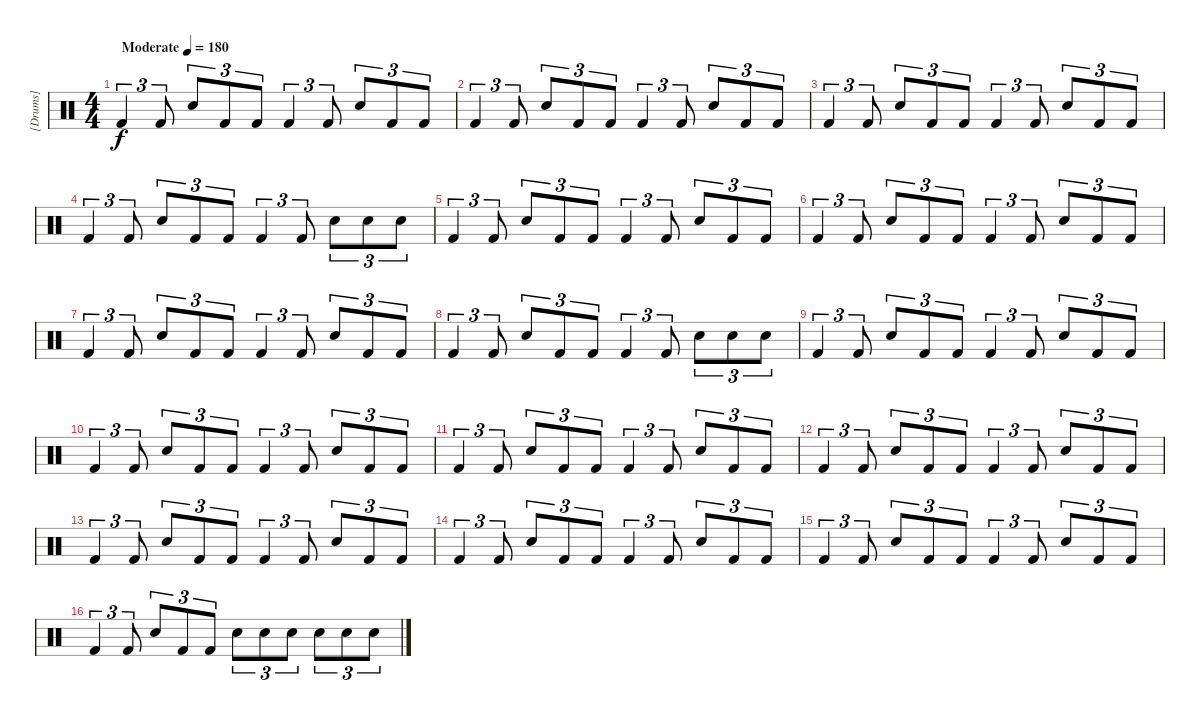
\track ("[Drums]" "[Drums]") {instrument percussion}
\staff {score}
\articulation defaults
\ts (4 4)
\tempo (180 "Moderate")
\clef neutral
\ks c "Kick (hit) 2".4{tu (3 2) dy f} "Kick (hit) 2".8{tu (3 2)} "Snare (hit) 2".8{tu (3 2)} "Kick (hit) 2".8{tu (3 2)} "Kick (hit) 2".8{tu (3 2)} "Kick (hit) 2".4{tu (3 2)} "Kick (hit) 2".8{tu (3 2)} "Snare (hit) 2".8{tu (3 2)} "Kick (hit) 2".8{tu (3 2)} "Kick (hit) 2".8{tu (3 2)}
|
"Kick (hit) 2".4{tu (3 2)} "Kick (hit) 2".8{tu (3 2)} "Snare (hit) 2".8{tu (3 2)} "Kick (hit) 2".8{tu (3 2)} "Kick (hit) 2".8{tu (3 2)} "Kick (hit) 2".4{tu (3 2)} "Kick (hit) 2".8{tu (3 2)} "Snare (hit) 2".8{tu (3 2)} "Kick (hit) 2".8{tu (3 2)} "Kick (hit) 2".8{tu (3 2)} |
"Kick (hit) 2".4{tu (3 2)} "Kick (hit) 2".8{tu (3 2)} "Snare (hit) 2".8{tu (3 2)} "Kick (hit) 2".8{tu (3 2)} "Kick (hit) 2".8{tu (3 2)} "Kick (hit) 2".4{tu (3 2)} "Kick (hit) 2".8{tu (3 2)} "Snare (hit) 2".8{tu (3 2)} "Kick (hit) 2".8{tu (3 2)} "Kick (hit) 2".8{tu (3 2)} |
"Kick (hit) 2".4{tu (3 2)} "Kick (hit) 2".8{tu (3 2)} "Snare (hit) 2".8{tu (3 2)} "Kick (hit) 2".8{tu (3 2)} "Kick (hit) 2".8{tu (3 2)} "Kick (hit) 2".4{tu (3 2)} "Kick (hit) 2".8{tu (3 2)} "Snare (hit) 2".8{tu (3 2)} "Snare (hit) 2".8{tu (3 2)} "Snare (hit) 2".8{tu (3 2)} |
"Kick (hit) 2".4{tu (3 2)} "Kick (hit) 2".8{tu (3 2)} "Snare (hit) 2".8{tu (3 2)} "Kick (hit) 2".8{tu (3 2)} "Kick (hit) 2".8{tu (3 2)} "Kick (hit) 2".4{tu (3 2)} "Kick (hit) 2".8{tu (3 2)} "Snare (hit) 2".8{tu (3 2)} "Kick (hit) 2".8{tu (3 2)} "Kick (hit) 2".8{tu (3 2)} |
"Kick (hit) 2".4{tu (3 2)} "Kick (hit) 2".8{tu (3 2)} "Snare (hit) 2".8{tu (3 2)} "Kick (hit) 2".8{tu (3 2)} "Kick (hit) 2".8{tu (3 2)} "Kick (hit) 2".4{tu (3 2)} "Kick (hit) 2".8{tu (3 2)} "Snare (hit) 2".8{tu (3 2)} "Kick (hit) 2".8{tu (3 2)} "Kick (hit) 2".8{tu (3 2)} |
"Kick (hit) 2".4{tu (3 2)} "Kick (hit) 2".8{tu (3 2)} "Snare (hit) 2".8{tu (3 2)} "Kick (hit) 2".8{tu (3 2)} "Kick (hit) 2".8{tu (3 2)} "Kick (hit) 2".4{tu (3 2)} "Kick (hit) 2".8{tu (3 2)} "Snare (hit) 2".8{tu (3 2)} "Kick (hit) 2".8{tu (3 2)} "Kick (hit) 2".8{tu (3 2)} |
"Kick (hit) 2".4{tu (3 2)} "Kick (hit) 2".8{tu (3 2)} "Snare (hit) 2".8{tu (3 2)} "Kick (hit) 2".8{tu (3 2)} "Kick (hit) 2".8{tu (3 2)} "Kick (hit) 2".4{tu (3 2)} "Kick (hit) 2".8{tu (3 2)} "Snare (hit) 2".8{tu (3 2)} "Snare (hit) 2".8{tu (3 2)} "Snare (hit) 2".8{tu (3 2)} |
"Kick (hit) 2".4{tu (3 2)} "Kick (hit) 2".8{tu (3 2)} "Snare (hit) 2".8{tu (3 2)} "Kick (hit) 2".8{tu (3 2)} "Kick (hit) 2".8{tu (3 2)} "Kick (hit) 2".4{tu (3 2)} "Kick (hit) 2".8{tu (3 2)} "Snare (hit) 2".8{tu (3 2)} "Kick (hit) 2".8{tu (3 2)} "Kick (hit) 2".8{tu (3 2)} |
"Kick (hit) 2".4{tu (3 2)} "Kick (hit) 2".8{tu (3 2)} "Snare (hit) 2".8{tu (3 2)} "Kick (hit) 2".8{tu (3 2)} "Kick (hit) 2".8{tu (3 2)} "Kick (hit) 2".4{tu (3 2)} "Kick (hit) 2".8{tu (3 2)} "Snare (hit) 2".8{tu (3 2)} "Kick (hit) 2".8{tu (3 2)} "Kick (hit) 2".8{tu (3 2)} |
"Kick (hit) 2".4{tu (3 2)} "Kick (hit) 2".8{tu (3 2)} "Snare (hit) 2".8{tu (3 2)} "Kick (hit) 2".8{tu (3 2)} "Kick (hit) 2".8{tu (3 2)} "Kick (hit) 2".4{tu (3 2)} "Kick (hit) 2".8{tu (3 2)} "Snare (hit) 2".8{tu (3 2)} "Kick (hit) 2".8{tu (3 2)} "Kick (hit) 2".8{tu (3 2)} |
"Kick (hit) 2".4{tu (3 2)} "Kick (hit) 2".8{tu (3 2)} "Snare (hit) 2".8{tu (3 2)} "Kick (hit) 2".8{tu (3 2)} "Kick (hit) 2".8{tu (3 2)} "Kick (hit) 2".4{tu (3 2)} "Kick (hit) 2".8{tu (3 2)} "Snare (hit) 2".8{tu (3 2)} "Kick (hit) 2".8{tu (3 2)} "Kick (hit) 2".8{tu (3 2)} |
"Kick (hit) 2".4{tu (3 2)} "Kick (hit) 2".8{tu (3 2)} "Snare (hit) 2".8{tu (3 2)} "Kick (hit) 2".8{tu (3 2)} "Kick (hit) 2".8{tu (3 2)} "Kick (hit) 2".4{tu (3 2)} "Kick (hit) 2".8{tu (3 2)} "Snare (hit) 2".8{tu (3 2)} "Kick (hit) 2".8{tu (3 2)} "Kick (hit) 2".8{tu (3 2)} |
"Kick (hit) 2".4{tu (3 2)} "Kick (hit) 2".8{tu (3 2)} "Snare (hit) 2".8{tu (3 2)} "Kick (hit) 2".8{tu (3 2)} "Kick (hit) 2".8{tu (3 2)} "Kick (hit) 2".4{tu (3 2)} "Kick (hit) 2".8{tu (3 2)} "Snare (hit) 2".8{tu (3 2)} "Kick (hit) 2".8{tu (3 2)} "Kick (hit) 2".8{tu (3 2)} |
"Kick (hit) 2".4{tu (3 2)} "Kick (hit) 2".8{tu (3 2)} "Snare (hit) 2".8{tu (3 2)} "Kick (hit) 2".8{tu (3 2)} "Kick (hit) 2".8{tu (3 2)} "Kick (hit) 2".4{tu (3 2)} "Kick (hit) 2".8{tu (3 2)} "Snare (hit) 2".8{tu (3 2)} "Kick (hit) 2".8{tu (3 2)} "Kick (hit) 2".8{tu (3 2)} |
"Kick (hit) 2".4{tu (3 2)} "Kick (hit) 2".8{tu (3 2)} "Snare (hit) 2".8{tu (3 2)} "Kick (hit) 2".8{tu (3 2)} "Kick (hit) 2".8{tu (3 2)} "Snare (hit) 2".8{tu (3 2)} "Snare (hit) 2".8{tu (3 2)} "Snare (hit) 2".8{tu (3 2)} "Snare (hit) 2".8{tu (3 2)} "Snare (hit) 2".8{tu (3 2)} "Snare (hit) 2".8{tu (3 2)}
